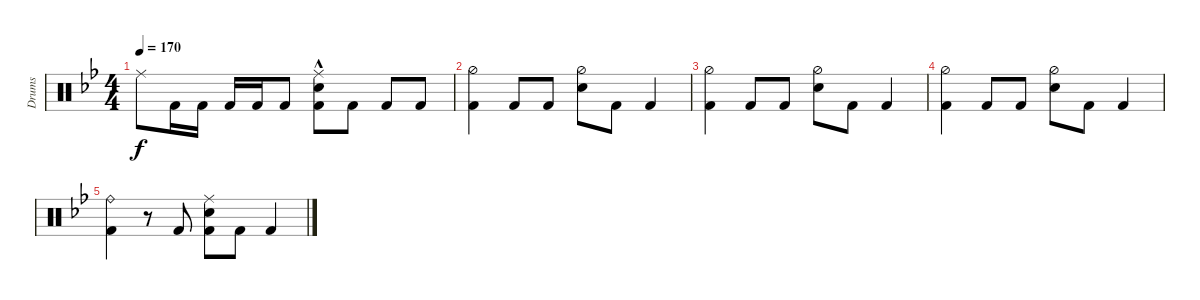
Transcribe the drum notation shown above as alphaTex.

\defaultSystemsLayout 4
\bracketExtendMode groupsimilarinstruments
\otherSystemsTrackNameOrientation horizontal
\track ("Drumkit" "Drums") {instrument percussion}
\staff {score}
\articulation defaults
\ts (4 4)
\tempo 170
\clef neutral
\ks bb "Ride (middle)"{acc forcenatural}.8{dy f} "Kick (hit) 2"{acc forcenatural}.16 "Kick (hit) 2"{acc forcenatural}.16 "Kick (hit) 2"{acc forcenatural}.16 "Kick (hit) 2"{acc forcenatural}.16 "Kick (hit) 2"{acc forcenatural}.8
("Kick (hit) 2"{acc forcenatural} "Snare (hit) 2"{hac acc forcenatural} "Ride (middle)"{acc forcenatural}).8 "Kick (hit) 2"{acc forcenatural}.8 "Kick (hit) 2"{acc forcenatural}.8 "Kick (hit) 2"{acc forcenatural}.8 |
("Hi-Hat (half)"{acc forcenatural} "Kick (hit) 2"{acc forcenatural}).4 "Kick (hit) 2"{acc forcenatural}.8 "Kick (hit) 2"{acc forcenatural}.8 ("Snare (hit) 2"{acc forcenatural} "Hi-Hat (half)"{acc forcenatural}).8 "Kick (hit) 2"{acc forcenatural}.8 "Kick (hit) 2"{acc forcenatural}.4 |
("Hi-Hat (half)"{acc forcenatural} "Kick (hit) 2"{acc forcenatural}).4 "Kick (hit) 2"{acc forcenatural}.8 "Kick (hit) 2"{acc forcenatural}.8 ("Snare (hit) 2"{acc forcenatural} "Hi-Hat (half)"{acc forcenatural}).8 "Kick (hit) 2"{acc forcenatural}.8 "Kick (hit) 2"{acc forcenatural}.4 |
("Hi-Hat (half)"{acc forcenatural} "Kick (hit) 2"{acc forcenatural}).4 "Kick (hit) 2"{acc forcenatural}.8 "Kick (hit) 2"{acc forcenatural}.8 ("Snare (hit) 2"{acc forcenatural} "Hi-Hat (half)"{acc forcenatural}).8 "Kick (hit) 2"{acc forcenatural}.8 "Kick (hit) 2"{acc forcenatural}.4 |
("Ride (bell)"{acc forcenatural} "Kick (hit) 2"{acc forcenatural}).4 r.8 "Kick (hit) 2"{acc forcenatural}.8 ("Kick (hit) 2"{acc forcenatural} "Snare (hit) 2"{acc forcenatural} "Ride (middle)"{acc forcenatural}).8 "Kick (hit) 2"{acc forcenatural}.8 "Kick (hit) 2"{acc forcenatural}.4
